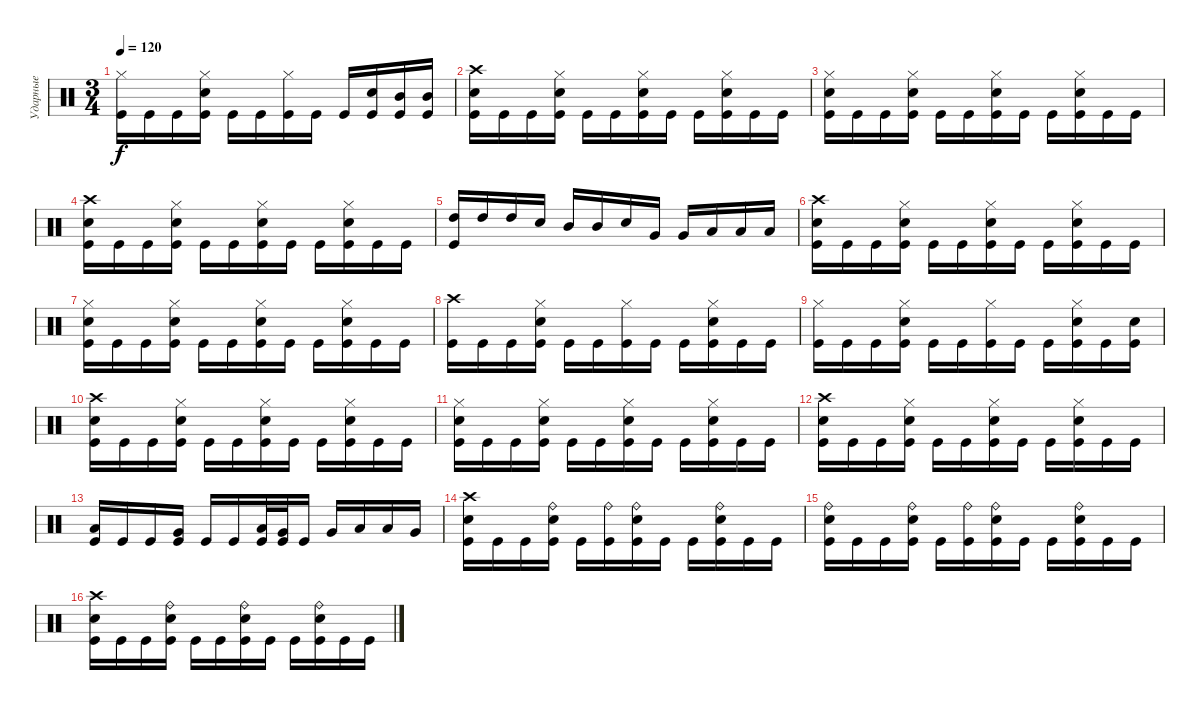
\track ("Ударные" "Ударные") {instrument percussion}
\staff {score}
\articulation defaults
\ts (3 4)
\tempo 120
\clef neutral
\ks c
("Hi-Hat (closed)" "Kick (hit)").16{dy f} "Kick (hit)".16 "Kick (hit)".16 ("Hi-Hat (closed)" "Electric Snare (hit)" "Kick (hit)").16 "Kick (hit)".16 "Kick (hit)".16 ("Hi-Hat (closed)" "Kick (hit)").16 "Kick (hit)".16 "Kick (hit)".16 ("Electric Snare (hit)" "Kick (hit)").16 ("Mid Tom (hit)" "Kick (hit)").16 ("Mid Tom (hit)" "Kick (hit)").16 |
("Crash high (hit)" "Electric Snare (hit)" "Kick (hit)").16 "Kick (hit)".16 "Kick (hit)".16 ("Hi-Hat (closed)" "Electric Snare (hit)" "Kick (hit)").16 "Kick (hit)".16 "Kick (hit)".16 ("Hi-Hat (closed)" "Electric Snare (hit)" "Kick (hit)").16 "Kick (hit)".16 "Kick (hit)".16 ("Hi-Hat (closed)" "Electric Snare (hit)" "Kick (hit)").16 "Kick (hit)".16 "Kick (hit)".16 |
("Hi-Hat (closed)" "Electric Snare (hit)" "Kick (hit)").16 "Kick (hit)".16 "Kick (hit)".16 ("Hi-Hat (closed)" "Electric Snare (hit)" "Kick (hit)").16 "Kick (hit)".16 "Kick (hit)".16 ("Hi-Hat (closed)" "Electric Snare (hit)" "Kick (hit)").16 "Kick (hit)".16 "Kick (hit)".16 ("Hi-Hat (closed)" "Electric Snare (hit)" "Kick (hit)").16 "Kick (hit)".16 "Kick (hit)".16 |
("Crash high (hit)" "Electric Snare (hit)" "Kick (hit)").16 "Kick (hit)".16 "Kick (hit)".16 ("Hi-Hat (closed)" "Electric Snare (hit)" "Kick (hit)").16 "Kick (hit)".16 "Kick (hit)".16 ("Hi-Hat (closed)" "Electric Snare (hit)" "Kick (hit)").16 "Kick (hit)".16 "Kick (hit)".16 ("Hi-Hat (closed)" "Electric Snare (hit)" "Kick (hit)").16 "Kick (hit)".16 "Kick (hit)".16 |
("High Tom (hit)" "Kick (hit)").16 "High Tom (hit)".16 "High Tom (hit)".16 "Electric Snare (hit)".16 "Mid Tom (hit)".16 "Mid Tom (hit)".16 "Electric Snare (hit)".16 "Very Low Tom (hit)".16 "Very Low Tom (hit)".16 "Low Tom (hit)".16 "Low Tom (hit)".16 "Low Tom (hit)".16 |
("Crash high (hit)" "Electric Snare (hit)" "Kick (hit)").16 "Kick (hit)".16 "Kick (hit)".16 ("Hi-Hat (closed)" "Electric Snare (hit)" "Kick (hit)").16 "Kick (hit)".16 "Kick (hit)".16 ("Hi-Hat (closed)" "Electric Snare (hit)" "Kick (hit)").16 "Kick (hit)".16 "Kick (hit)".16 ("Hi-Hat (closed)" "Electric Snare (hit)" "Kick (hit)").16 "Kick (hit)".16 "Kick (hit)".16 |
("Hi-Hat (closed)" "Electric Snare (hit)" "Kick (hit)").16 "Kick (hit)".16 "Kick (hit)".16 ("Hi-Hat (closed)" "Electric Snare (hit)" "Kick (hit)").16 "Kick (hit)".16 "Kick (hit)".16 ("Hi-Hat (closed)" "Electric Snare (hit)" "Kick (hit)").16 "Kick (hit)".16 "Kick (hit)".16 ("Hi-Hat (closed)" "Electric Snare (hit)" "Kick (hit)").16 "Kick (hit)".16 "Kick (hit)".16 |
("Crash high (hit)" "Kick (hit)").16 "Kick (hit)".16 "Kick (hit)".16 ("Hi-Hat (closed)" "Electric Snare (hit)" "Kick (hit)").16 "Kick (hit)".16 "Kick (hit)".16 ("Hi-Hat (closed)" "Kick (hit)").16 "Kick (hit)".16 "Kick (hit)".16 ("Hi-Hat (closed)" "Electric Snare (hit)" "Kick (hit)").16 "Kick (hit)".16 "Kick (hit)".16 |
("Hi-Hat (closed)" "Kick (hit)").16 "Kick (hit)".16 "Kick (hit)".16 ("Hi-Hat (closed)" "Electric Snare (hit)" "Kick (hit)").16 "Kick (hit)".16 "Kick (hit)".16 ("Hi-Hat (closed)" "Kick (hit)").16 "Kick (hit)".16 "Kick (hit)".16 ("Hi-Hat (closed)" "Electric Snare (hit)" "Kick (hit)").16 "Kick (hit)".16 ("Electric Snare (hit)" "Kick (hit)").16 |
("Crash high (hit)" "Electric Snare (hit)" "Kick (hit)").16 "Kick (hit)".16 "Kick (hit)".16 ("Hi-Hat (closed)" "Electric Snare (hit)" "Kick (hit)").16 "Kick (hit)".16 "Kick (hit)".16 ("Hi-Hat (closed)" "Electric Snare (hit)" "Kick (hit)").16 "Kick (hit)".16 "Kick (hit)".16 ("Hi-Hat (closed)" "Electric Snare (hit)" "Kick (hit)").16 "Kick (hit)".16 "Kick (hit)".16 |
("Hi-Hat (closed)" "Electric Snare (hit)" "Kick (hit)").16 "Kick (hit)".16 "Kick (hit)".16 ("Hi-Hat (closed)" "Electric Snare (hit)" "Kick (hit)").16 "Kick (hit)".16 "Kick (hit)".16 ("Hi-Hat (closed)" "Electric Snare (hit)" "Kick (hit)").16 "Kick (hit)".16 "Kick (hit)".16 ("Hi-Hat (closed)" "Electric Snare (hit)" "Kick (hit)").16 "Kick (hit)".16 "Kick (hit)".16 |
("Crash high (hit)" "Electric Snare (hit)" "Kick (hit)").16 "Kick (hit)".16 "Kick (hit)".16 ("Hi-Hat (closed)" "Electric Snare (hit)" "Kick (hit)").16 "Kick (hit)".16 "Kick (hit)".16 ("Hi-Hat (closed)" "Electric Snare (hit)" "Kick (hit)").16 "Kick (hit)".16 "Kick (hit)".16 ("Hi-Hat (closed)" "Electric Snare (hit)" "Kick (hit)").16 "Kick (hit)".16 "Kick (hit)".16 |
("Low Tom (hit)" "Kick (hit)").16 "Kick (hit)".16 "Kick (hit)".16 ("Very Low Tom (hit)" "Kick (hit)").16 "Kick (hit)".16 "Kick (hit)".16 ("Low Tom (hit)" "Kick (hit)").32 ("Very Low Tom (hit)" "Kick (hit)").32 "Kick (hit)".16 "Very Low Tom (hit)".16 "Low Tom (hit)".16 "Low Tom (hit)".16 "Very Low Tom (hit)".16 |
("Crash high (hit)" "Electric Snare (hit)" "Kick (hit)").16 "Kick (hit)".16 "Kick (hit)".16 ("Ride (bell)" "Electric Snare (hit)" "Kick (hit)").16 "Kick (hit)".16 ("Ride (bell)" "Kick (hit)").16 ("Ride (bell)" "Electric Snare (hit)" "Kick (hit)").16 "Kick (hit)".16 "Kick (hit)".16 ("Ride (bell)" "Electric Snare (hit)" "Kick (hit)").16 "Kick (hit)".16 "Kick (hit)".16 |
("Ride (bell)" "Electric Snare (hit)" "Kick (hit)").16 "Kick (hit)".16 "Kick (hit)".16 ("Ride (bell)" "Electric Snare (hit)" "Kick (hit)").16 "Kick (hit)".16 ("Ride (bell)" "Kick (hit)").16 ("Ride (bell)" "Electric Snare (hit)" "Kick (hit)").16 "Kick (hit)".16 "Kick (hit)".16 ("Ride (bell)" "Electric Snare (hit)" "Kick (hit)").16 "Kick (hit)".16 "Kick (hit)".16 |
("Crash high (hit)" "Electric Snare (hit)" "Kick (hit)").16 "Kick (hit)".16 "Kick (hit)".16 ("Ride (bell)" "Electric Snare (hit)" "Kick (hit)").16 "Kick (hit)".16 "Kick (hit)".16 ("Ride (bell)" "Electric Snare (hit)" "Kick (hit)").16 "Kick (hit)".16 "Kick (hit)".16 ("Ride (bell)" "Electric Snare (hit)" "Kick (hit)").16 "Kick (hit)".16 "Kick (hit)".16
